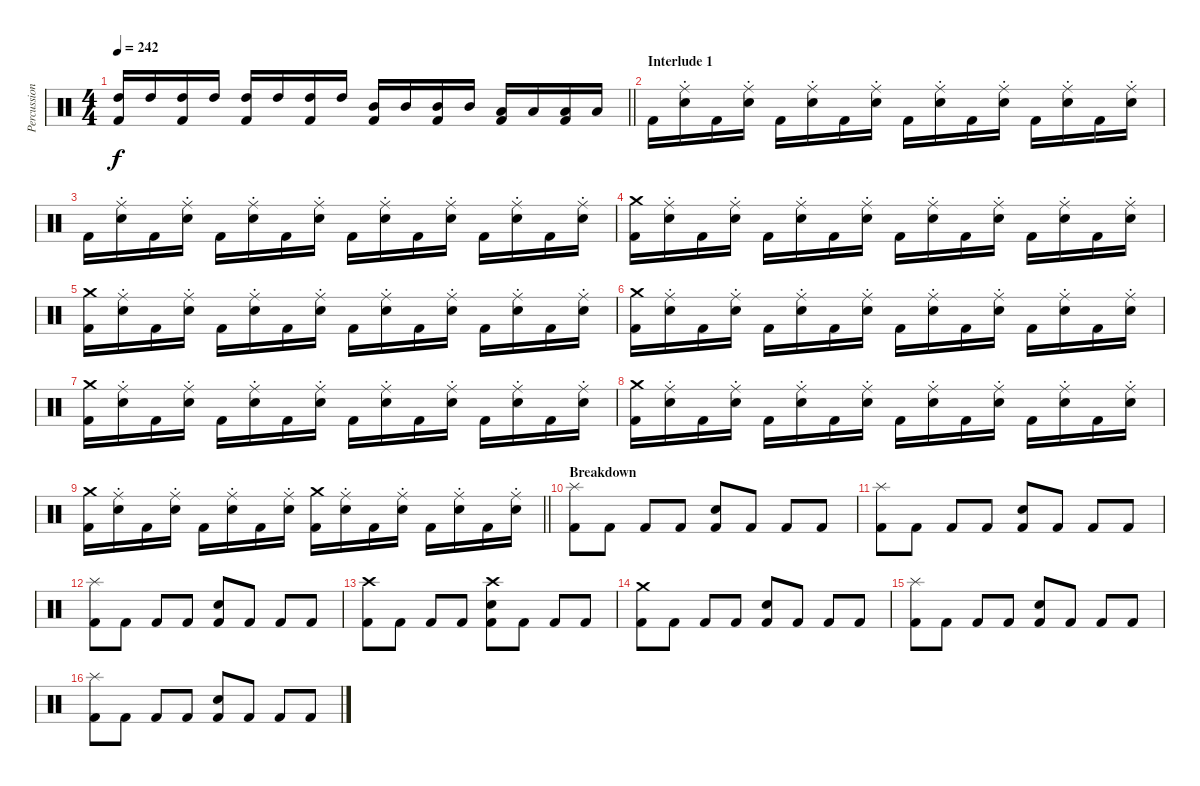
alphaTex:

\track ("Percussion" "Percussion") {instrument percussion}
\staff {score}
\articulation defaults
\ts (4 4)
\tempo 242
\clef neutral
\barLineRight lightlight
\ks c
("High Tom (hit)" "Kick (hit) 2").16{dy f} "High Tom (hit)".16 ("High Tom (hit)" "Kick (hit) 2").16 "High Tom (hit)".16 ("High Tom (hit)" "Kick (hit) 2").16 "High Tom (hit)".16 ("High Tom (hit)" "Kick (hit) 2").16 "High Tom (hit)".16 ("Mid Tom (hit)" "Kick (hit) 2").16 "Mid Tom (hit)".16 ("Mid Tom (hit)" "Kick (hit) 2").16 "Mid Tom (hit)".16 ("Low Tom (hit)" "Kick (hit) 2").16 "Low Tom (hit)".16 ("Low Tom (hit)" "Kick (hit) 2").16 "Low Tom (hit)".16 |
\section ("" "Interlude 1")
"Kick (hit) 2".16 ("Ride (middle)"{st} "Snare (hit) 2").16 "Kick (hit) 2".16 ("Ride (middle)"{st} "Snare (hit) 2").16 "Kick (hit) 2".16 ("Ride (middle)"{st} "Snare (hit) 2").16 "Kick (hit) 2".16 ("Ride (middle)"{st} "Snare (hit) 2").16 "Kick (hit) 2".16 ("Ride (middle)"{st} "Snare (hit) 2").16 "Kick (hit) 2".16 ("Ride (middle)"{st} "Snare (hit) 2").16 "Kick (hit) 2".16 ("Ride (middle)"{st} "Snare (hit) 2").16 "Kick (hit) 2".16 ("Ride (middle)"{st} "Snare (hit) 2").16 |
"Kick (hit) 2".16 ("Ride (middle)"{st} "Snare (hit) 2").16 "Kick (hit) 2".16 ("Ride (middle)"{st} "Snare (hit) 2").16 "Kick (hit) 2".16 ("Ride (middle)"{st} "Snare (hit) 2").16 "Kick (hit) 2".16 ("Ride (middle)"{st} "Snare (hit) 2").16 "Kick (hit) 2".16 ("Ride (middle)"{st} "Snare (hit) 2").16 "Kick (hit) 2".16 ("Ride (middle)"{st} "Snare (hit) 2").16 "Kick (hit) 2".16 ("Ride (middle)"{st} "Snare (hit) 2").16 "Kick (hit) 2".16 ("Ride (middle)"{st} "Snare (hit) 2").16 |
("Crash medium (hit)" "Kick (hit) 2").16 ("Ride (middle)"{st} "Snare (hit) 2").16 "Kick (hit) 2".16 ("Ride (middle)"{st} "Snare (hit) 2").16 "Kick (hit) 2".16 ("Ride (middle)"{st} "Snare (hit) 2").16 "Kick (hit) 2".16 ("Ride (middle)"{st} "Snare (hit) 2").16 "Kick (hit) 2".16 ("Ride (middle)"{st} "Snare (hit) 2").16 "Kick (hit) 2".16 ("Ride (middle)"{st} "Snare (hit) 2").16 "Kick (hit) 2".16 ("Ride (middle)"{st} "Snare (hit) 2").16 "Kick (hit) 2".16 ("Ride (middle)"{st} "Snare (hit) 2").16 |
("Crash medium (hit)" "Kick (hit) 2").16 ("Ride (middle)"{st} "Snare (hit) 2").16 "Kick (hit) 2".16 ("Ride (middle)"{st} "Snare (hit) 2").16 "Kick (hit) 2".16 ("Ride (middle)"{st} "Snare (hit) 2").16 "Kick (hit) 2".16 ("Ride (middle)"{st} "Snare (hit) 2").16 "Kick (hit) 2".16 ("Ride (middle)"{st} "Snare (hit) 2").16 "Kick (hit) 2".16 ("Ride (middle)"{st} "Snare (hit) 2").16 "Kick (hit) 2".16 ("Ride (middle)"{st} "Snare (hit) 2").16 "Kick (hit) 2".16 ("Ride (middle)"{st} "Snare (hit) 2").16 |
("Crash medium (hit)" "Kick (hit) 2").16 ("Ride (middle)"{st} "Snare (hit) 2").16 "Kick (hit) 2".16 ("Ride (middle)"{st} "Snare (hit) 2").16 "Kick (hit) 2".16 ("Ride (middle)"{st} "Snare (hit) 2").16 "Kick (hit) 2".16 ("Ride (middle)"{st} "Snare (hit) 2").16 "Kick (hit) 2".16 ("Ride (middle)"{st} "Snare (hit) 2").16 "Kick (hit) 2".16 ("Ride (middle)"{st} "Snare (hit) 2").16 "Kick (hit) 2".16 ("Ride (middle)"{st} "Snare (hit) 2").16 "Kick (hit) 2".16 ("Ride (middle)"{st} "Snare (hit) 2").16 |
("Crash medium (hit)" "Kick (hit) 2").16 ("Ride (middle)"{st} "Snare (hit) 2").16 "Kick (hit) 2".16 ("Ride (middle)"{st} "Snare (hit) 2").16 "Kick (hit) 2".16 ("Ride (middle)"{st} "Snare (hit) 2").16 "Kick (hit) 2".16 ("Ride (middle)"{st} "Snare (hit) 2").16 "Kick (hit) 2".16 ("Ride (middle)"{st} "Snare (hit) 2").16 "Kick (hit) 2".16 ("Ride (middle)"{st} "Snare (hit) 2").16 "Kick (hit) 2".16 ("Ride (middle)"{st} "Snare (hit) 2").16 "Kick (hit) 2".16 ("Ride (middle)"{st} "Snare (hit) 2").16 |
("Crash medium (hit)" "Kick (hit) 2").16 ("Ride (middle)"{st} "Snare (hit) 2").16 "Kick (hit) 2".16 ("Ride (middle)"{st} "Snare (hit) 2").16 "Kick (hit) 2".16 ("Ride (middle)"{st} "Snare (hit) 2").16 "Kick (hit) 2".16 ("Ride (middle)"{st} "Snare (hit) 2").16 "Kick (hit) 2".16 ("Ride (middle)"{st} "Snare (hit) 2").16 "Kick (hit) 2".16 ("Ride (middle)"{st} "Snare (hit) 2").16 "Kick (hit) 2".16 ("Ride (middle)"{st} "Snare (hit) 2").16 "Kick (hit) 2".16 ("Ride (middle)"{st} "Snare (hit) 2").16 |
\barLineRight lightlight
("Crash medium (hit)" "Kick (hit) 2").16 ("Ride (middle)"{st} "Snare (hit) 2").16 "Kick (hit) 2".16 ("Ride (middle)"{st} "Snare (hit) 2").16 "Kick (hit) 2".16 ("Ride (middle)"{st} "Snare (hit) 2").16 "Kick (hit) 2".16 ("Ride (middle)"{st} "Snare (hit) 2").16 ("Crash medium (hit)" "Kick (hit) 2").16 ("Ride (middle)"{st} "Snare (hit) 2").16 "Kick (hit) 2".16 ("Ride (middle)"{st} "Snare (hit) 2").16 "Kick (hit) 2".16 ("Ride (middle)"{st} "Snare (hit) 2").16 "Kick (hit) 2".16 ("Ride (middle)"{st} "Snare (hit) 2").16 |
\section ("" "Breakdown")
("Splash (hit)" "Kick (hit) 2").8 "Kick (hit) 2".8 "Kick (hit) 2".8 "Kick (hit) 2".8 ("Snare (hit) 2" "Kick (hit) 2").8 "Kick (hit) 2".8 "Kick (hit) 2".8 "Kick (hit) 2".8 |
("Splash (hit)" "Kick (hit) 2").8 "Kick (hit) 2".8 "Kick (hit) 2".8 "Kick (hit) 2".8 ("Snare (hit) 2" "Kick (hit) 2").8 "Kick (hit) 2".8 "Kick (hit) 2".8 "Kick (hit) 2".8 |
("Splash (hit)" "Kick (hit) 2").8 "Kick (hit) 2".8 "Kick (hit) 2".8 "Kick (hit) 2".8 ("Snare (hit) 2" "Kick (hit) 2").8 "Kick (hit) 2".8 "Kick (hit) 2".8 "Kick (hit) 2".8 |
("Crash high (hit)" "Kick (hit) 2").8 "Kick (hit) 2".8 "Kick (hit) 2".8 "Kick (hit) 2".8 ("Crash high (hit)" "Snare (hit) 2" "Kick (hit) 2").8 "Kick (hit) 2".8 "Kick (hit) 2".8 "Kick (hit) 2".8 |
("Crash medium (hit)" "Kick (hit) 2").8 "Kick (hit) 2".8 "Kick (hit) 2".8 "Kick (hit) 2".8 ("Snare (hit) 2" "Kick (hit) 2").8 "Kick (hit) 2".8 "Kick (hit) 2".8 "Kick (hit) 2".8 |
("Splash (hit)" "Kick (hit) 2").8 "Kick (hit) 2".8 "Kick (hit) 2".8 "Kick (hit) 2".8 ("Snare (hit) 2" "Kick (hit) 2").8 "Kick (hit) 2".8 "Kick (hit) 2".8 "Kick (hit) 2".8 |
("Splash (hit)" "Kick (hit) 2").8 "Kick (hit) 2".8 "Kick (hit) 2".8 "Kick (hit) 2".8 ("Snare (hit) 2" "Kick (hit) 2").8 "Kick (hit) 2".8 "Kick (hit) 2".8 "Kick (hit) 2".8
